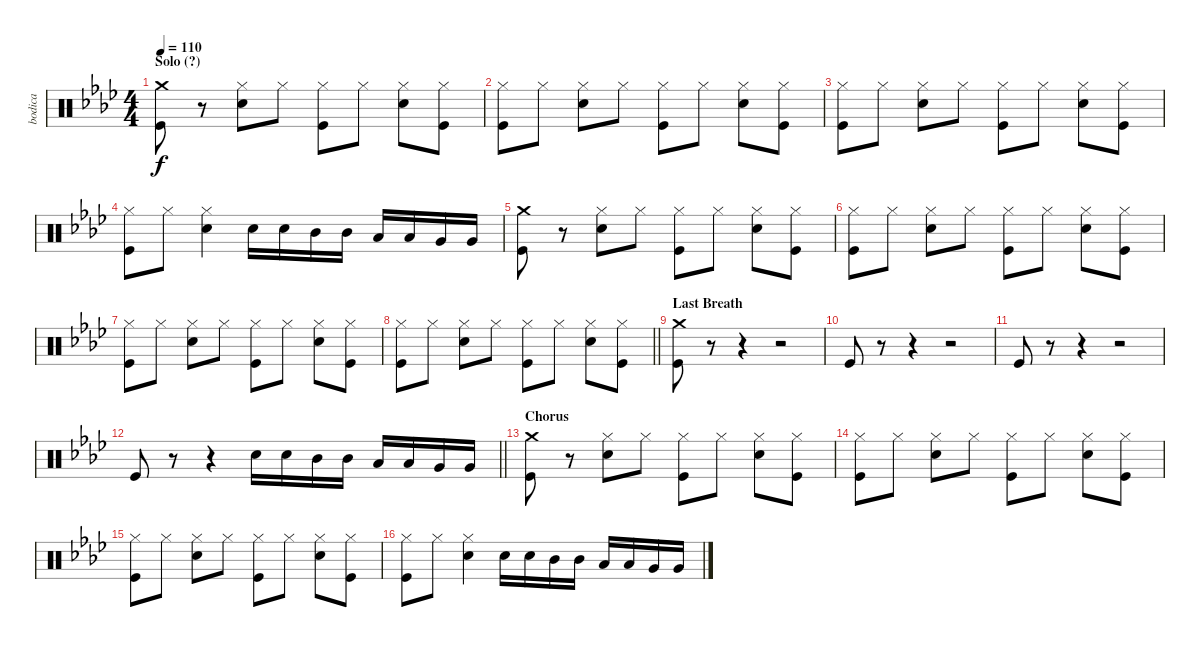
\track ("bodica" "bodica") {instrument percussion}
\staff {score}
\articulation defaults
\ts (4 4)
\section ("" "Solo (?)")
\tempo 110
\clef neutral
\ks fminor
("Crash medium (hit)" "Kick (hit)").8{dy f} r.8 ("Hi-Hat (closed)" "Snare (hit) 2").8 "Hi-Hat (closed)".8 ("Hi-Hat (closed)" "Kick (hit)").8 "Hi-Hat (closed)".8 ("Hi-Hat (closed)" "Snare (hit) 2").8 ("Hi-Hat (closed)" "Kick (hit)").8 |
("Hi-Hat (closed)" "Kick (hit)").8 "Hi-Hat (closed)".8 ("Hi-Hat (closed)" "Snare (hit) 2").8 "Hi-Hat (closed)".8 ("Hi-Hat (closed)" "Kick (hit)").8 "Hi-Hat (closed)".8 ("Hi-Hat (closed)" "Snare (hit) 2").8 ("Hi-Hat (closed)" "Kick (hit)").8 |
("Hi-Hat (closed)" "Kick (hit)").8 "Hi-Hat (closed)".8 ("Hi-Hat (closed)" "Snare (hit) 2").8 "Hi-Hat (closed)".8 ("Hi-Hat (closed)" "Kick (hit)").8 "Hi-Hat (closed)".8 ("Hi-Hat (closed)" "Snare (hit) 2").8 ("Hi-Hat (closed)" "Kick (hit)").8 |
("Hi-Hat (closed)" "Kick (hit)").8 "Hi-Hat (closed)".8 ("Hi-Hat (closed)" "Snare (hit) 2").4 "Snare (hit) 2".16 "Snare (hit) 2".16 "Mid Tom (hit)".16 "Mid Tom (hit)".16 "Low Tom (hit)".16 "Low Tom (hit)".16 "Very Low Tom (hit)".16 "Very Low Tom (hit)".16 |
("Crash medium (hit)" "Kick (hit)").8 r.8 ("Hi-Hat (closed)" "Snare (hit) 2").8 "Hi-Hat (closed)".8 ("Hi-Hat (closed)" "Kick (hit)").8 "Hi-Hat (closed)".8 ("Hi-Hat (closed)" "Snare (hit) 2").8 ("Hi-Hat (closed)" "Kick (hit)").8 |
("Hi-Hat (closed)" "Kick (hit)").8 "Hi-Hat (closed)".8 ("Hi-Hat (closed)" "Snare (hit) 2").8 "Hi-Hat (closed)".8 ("Hi-Hat (closed)" "Kick (hit)").8 "Hi-Hat (closed)".8 ("Hi-Hat (closed)" "Snare (hit) 2").8 ("Hi-Hat (closed)" "Kick (hit)").8 |
("Hi-Hat (closed)" "Kick (hit)").8 "Hi-Hat (closed)".8 ("Hi-Hat (closed)" "Snare (hit) 2").8 "Hi-Hat (closed)".8 ("Hi-Hat (closed)" "Kick (hit)").8 "Hi-Hat (closed)".8 ("Hi-Hat (closed)" "Snare (hit) 2").8 ("Hi-Hat (closed)" "Kick (hit)").8 |
\barLineRight lightlight
("Hi-Hat (closed)" "Kick (hit)").8 "Hi-Hat (closed)".8 ("Hi-Hat (closed)" "Snare (hit) 2").8 "Hi-Hat (closed)".8 ("Hi-Hat (closed)" "Kick (hit)").8 "Hi-Hat (closed)".8 ("Hi-Hat (closed)" "Snare (hit) 2").8 ("Hi-Hat (closed)" "Kick (hit)").8 |
\section ("" "Last Breath")
("Crash medium (hit)" "Kick (hit)").8 r.8 r.4 r.2 |
"Kick (hit)".8 r.8 r.4 r.2 |
"Kick (hit)".8 r.8 r.4 r.2 |
\barLineRight lightlight "Kick (hit)".8
r.8 r.4 "Snare (hit) 2".16 "Snare (hit) 2".16 "Mid Tom (hit)".16 "Mid Tom (hit)".16 "Low Tom (hit)".16 "Low Tom (hit)".16 "Very Low Tom (hit)".16 "Very Low Tom (hit)".16 |
\section ("" "Chorus")
("Crash medium (hit)" "Kick (hit)").8 r.8 ("Hi-Hat (closed)" "Snare (hit) 2").8 "Hi-Hat (closed)".8 ("Hi-Hat (closed)" "Kick (hit)").8 "Hi-Hat (closed)".8 ("Hi-Hat (closed)" "Snare (hit) 2").8 ("Hi-Hat (closed)" "Kick (hit)").8 |
("Hi-Hat (closed)" "Kick (hit)").8 "Hi-Hat (closed)".8 ("Hi-Hat (closed)" "Snare (hit) 2").8 "Hi-Hat (closed)".8 ("Hi-Hat (closed)" "Kick (hit)").8 "Hi-Hat (closed)".8 ("Hi-Hat (closed)" "Snare (hit) 2").8 ("Hi-Hat (closed)" "Kick (hit)").8 |
("Hi-Hat (closed)" "Kick (hit)").8 "Hi-Hat (closed)".8 ("Hi-Hat (closed)" "Snare (hit) 2").8 "Hi-Hat (closed)".8 ("Hi-Hat (closed)" "Kick (hit)").8 "Hi-Hat (closed)".8 ("Hi-Hat (closed)" "Snare (hit) 2").8 ("Hi-Hat (closed)" "Kick (hit)").8 |
("Hi-Hat (closed)" "Kick (hit)").8 "Hi-Hat (closed)".8 ("Hi-Hat (closed)" "Snare (hit) 2").4 "Snare (hit) 2".16 "Snare (hit) 2".16 "Mid Tom (hit)".16 "Mid Tom (hit)".16 "Low Tom (hit)".16 "Low Tom (hit)".16 "Very Low Tom (hit)".16 "Very Low Tom (hit)".16
